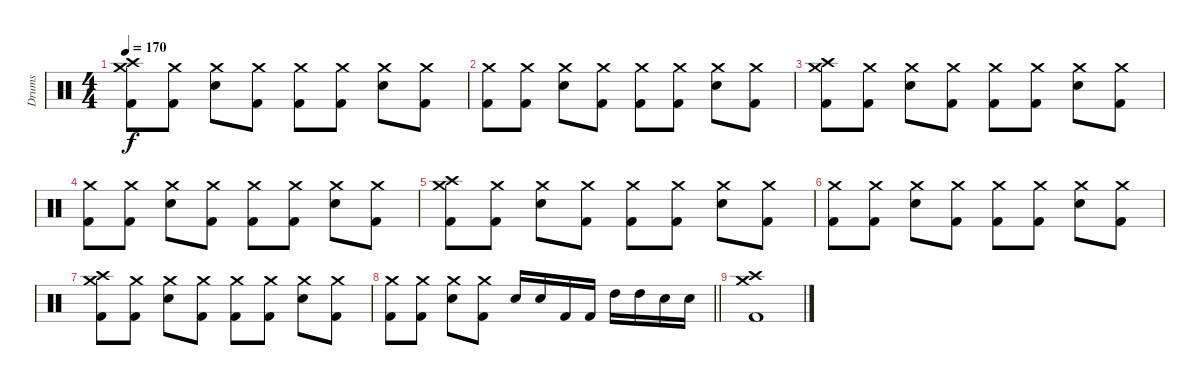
\track ("Drums" "Drums") {instrument percussion}
\staff {score}
\articulation defaults
\ts (4 4)
\tempo 170
\clef neutral
\ks c
("Kick (hit) 2" "Crash high (hit)" "Crash medium (hit)").8{dy f} ("Kick (hit) 2" "Crash medium (hit)").8 ("Snare (hit) 2" "Crash medium (hit)").8 ("Kick (hit) 2" "Crash medium (hit)").8 ("Kick (hit) 2" "Crash medium (hit)").8 ("Kick (hit) 2" "Crash medium (hit)").8 ("Snare (hit) 2" "Crash medium (hit)").8 ("Kick (hit) 2" "Crash medium (hit)").8 |
("Kick (hit) 2" "Crash medium (hit)").8 ("Kick (hit) 2" "Crash medium (hit)").8 ("Snare (hit) 2" "Crash medium (hit)").8 ("Kick (hit) 2" "Crash medium (hit)").8 ("Kick (hit) 2" "Crash medium (hit)").8 ("Kick (hit) 2" "Crash medium (hit)").8 ("Snare (hit) 2" "Crash medium (hit)").8 ("Kick (hit) 2" "Crash medium (hit)").8 |
("Kick (hit) 2" "Crash high (hit)" "Crash medium (hit)").8 ("Kick (hit) 2" "Crash medium (hit)").8 ("Snare (hit) 2" "Crash medium (hit)").8 ("Kick (hit) 2" "Crash medium (hit)").8 ("Kick (hit) 2" "Crash medium (hit)").8 ("Kick (hit) 2" "Crash medium (hit)").8 ("Snare (hit) 2" "Crash medium (hit)").8 ("Kick (hit) 2" "Crash medium (hit)").8 |
("Kick (hit) 2" "Crash medium (hit)").8 ("Kick (hit) 2" "Crash medium (hit)").8 ("Snare (hit) 2" "Crash medium (hit)").8 ("Kick (hit) 2" "Crash medium (hit)").8 ("Kick (hit) 2" "Crash medium (hit)").8 ("Kick (hit) 2" "Crash medium (hit)").8 ("Snare (hit) 2" "Crash medium (hit)").8 ("Kick (hit) 2" "Crash medium (hit)").8 |
("Kick (hit) 2" "Crash high (hit)" "Crash medium (hit)").8 ("Kick (hit) 2" "Crash medium (hit)").8 ("Snare (hit) 2" "Crash medium (hit)").8 ("Kick (hit) 2" "Crash medium (hit)").8 ("Kick (hit) 2" "Crash medium (hit)").8 ("Kick (hit) 2" "Crash medium (hit)").8 ("Snare (hit) 2" "Crash medium (hit)").8 ("Kick (hit) 2" "Crash medium (hit)").8 |
("Kick (hit) 2" "Crash medium (hit)").8 ("Kick (hit) 2" "Crash medium (hit)").8 ("Snare (hit) 2" "Crash medium (hit)").8 ("Kick (hit) 2" "Crash medium (hit)").8 ("Kick (hit) 2" "Crash medium (hit)").8 ("Kick (hit) 2" "Crash medium (hit)").8 ("Snare (hit) 2" "Crash medium (hit)").8 ("Kick (hit) 2" "Crash medium (hit)").8 |
("Kick (hit) 2" "Crash high (hit)" "Crash medium (hit)").8 ("Kick (hit) 2" "Crash medium (hit)").8 ("Snare (hit) 2" "Crash medium (hit)").8 ("Kick (hit) 2" "Crash medium (hit)").8 ("Kick (hit) 2" "Crash medium (hit)").8 ("Kick (hit) 2" "Crash medium (hit)").8 ("Snare (hit) 2" "Crash medium (hit)").8 ("Kick (hit) 2" "Crash medium (hit)").8 |
\barLineRight lightlight
("Kick (hit) 2" "Crash medium (hit)").8 ("Kick (hit) 2" "Crash medium (hit)").8 ("Snare (hit) 2" "Crash medium (hit)").8 ("Kick (hit) 2" "Crash medium (hit)").8 "Snare (hit) 2".16 "Snare (hit) 2".16 "Kick (hit) 2".16 "Kick (hit) 2".16 "High Tom (hit)".16 "High Tom (hit)".16 "Snare (hit) 2".16 "Snare (hit) 2".16 |
("Kick (hit) 2" "Crash high (hit)" "Crash medium (hit)").1
